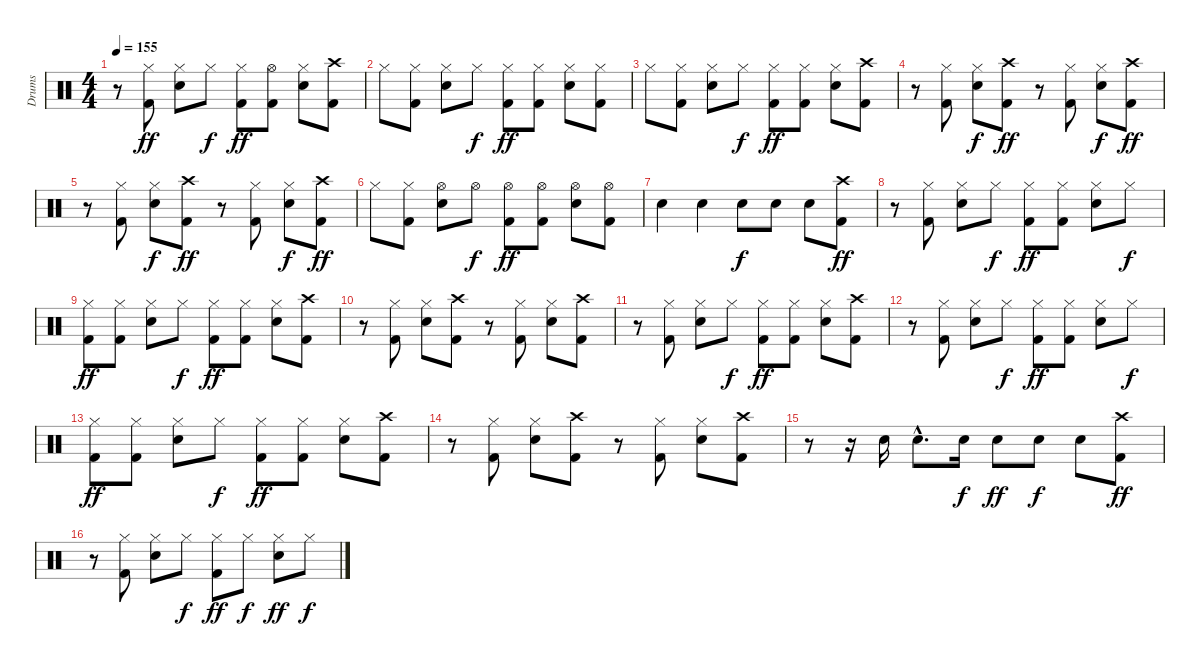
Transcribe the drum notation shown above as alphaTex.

\track ("Drums" "Drums") {instrument percussion}
\staff {score}
\articulation defaults
\ts (4 4)
\tempo 155
\clef neutral
\ks c
r.8{dy ff} ("Hi-Hat (closed)" "Kick (hit) 2").8 ("Hi-Hat (closed)" "Snare (hit) 2").8 "Hi-Hat (closed)".8{dy f} ("Hi-Hat (closed)" "Kick (hit) 2").8{dy ff} ("Hi-Hat (open)" "Kick (hit) 2").8 ("Hi-Hat (closed)" "Snare (hit) 2").8 ("Crash high (hit)" "Kick (hit) 2").8 |
"Hi-Hat (closed)".8 ("Hi-Hat (closed)" "Kick (hit) 2").8 ("Hi-Hat (closed)" "Snare (hit) 2").8 "Hi-Hat (closed)".8{dy f} ("Hi-Hat (closed)" "Kick (hit) 2").8{dy ff} ("Hi-Hat (closed)" "Kick (hit) 2").8 ("Hi-Hat (closed)" "Snare (hit) 2").8 ("Hi-Hat (closed)" "Kick (hit) 2").8 |
"Hi-Hat (closed)".8 ("Hi-Hat (closed)" "Kick (hit) 2").8 ("Hi-Hat (closed)" "Snare (hit) 2").8 "Hi-Hat (closed)".8{dy f} ("Hi-Hat (closed)" "Kick (hit) 2").8{dy ff} ("Hi-Hat (closed)" "Kick (hit) 2").8 ("Hi-Hat (closed)" "Snare (hit) 2").8 ("Crash high (hit)" "Kick (hit) 2").8 |
r.8 ("Hi-Hat (closed)" "Kick (hit) 2").8 ("Hi-Hat (closed)" "Snare (hit) 2").8{dy f} ("Crash high (hit)" "Kick (hit) 2").8{dy ff} r.8 ("Hi-Hat (closed)" "Kick (hit) 2").8 ("Hi-Hat (closed)" "Snare (hit) 2").8{dy f} ("Crash high (hit)" "Kick (hit) 2").8{dy ff} |
r.8 ("Hi-Hat (closed)" "Kick (hit) 2").8 ("Hi-Hat (closed)" "Snare (hit) 2").8{dy f} ("Crash high (hit)" "Kick (hit) 2").8{dy ff} r.8 ("Hi-Hat (closed)" "Kick (hit) 2").8 ("Hi-Hat (closed)" "Snare (hit) 2").8{dy f} ("Crash high (hit)" "Kick (hit) 2").8{dy ff} |
"Hi-Hat (closed)".8 ("Hi-Hat (closed)" "Kick (hit) 2").8 ("Hi-Hat (open)" "Snare (hit) 2").8 "Hi-Hat (open)".8{dy f} ("Hi-Hat (open)" "Kick (hit) 2").8{dy ff} ("Hi-Hat (open)" "Kick (hit) 2").8 ("Hi-Hat (open)" "Snare (hit) 2").8 ("Hi-Hat (open)" "Kick (hit) 2").8 |
"Snare (hit) 2".4 "Snare (hit) 2".4 "Snare (hit) 2".8{dy f} "Snare (hit) 2".8 "Snare (hit) 2".8 ("Crash high (hit)" "Kick (hit) 2").8{dy ff} |
r.8 ("Hi-Hat (closed)" "Kick (hit) 2").8 ("Hi-Hat (closed)" "Snare (hit) 2").8 "Hi-Hat (closed)".8{dy f} ("Hi-Hat (closed)" "Kick (hit) 2").8{dy ff} ("Hi-Hat (closed)" "Kick (hit) 2").8 ("Hi-Hat (closed)" "Snare (hit) 2").8 "Hi-Hat (closed)".8{dy f} |
("Hi-Hat (closed)" "Kick (hit) 2").8{dy ff} ("Hi-Hat (closed)" "Kick (hit) 2").8 ("Hi-Hat (closed)" "Snare (hit) 2").8 "Hi-Hat (closed)".8{dy f} ("Hi-Hat (closed)" "Kick (hit) 2").8{dy ff} ("Hi-Hat (closed)" "Kick (hit) 2").8 ("Hi-Hat (closed)" "Snare (hit) 2").8 ("Crash high (hit)" "Kick (hit) 2").8 |
r.8 ("Hi-Hat (closed)" "Kick (hit) 2").8 ("Hi-Hat (closed)" "Snare (hit) 2").8 ("Crash high (hit)" "Kick (hit) 2").8 r.8 ("Hi-Hat (closed)" "Kick (hit) 2").8 ("Hi-Hat (closed)" "Snare (hit) 2").8 ("Crash high (hit)" "Kick (hit) 2").8 |
r.8 ("Hi-Hat (closed)" "Kick (hit) 2").8 ("Hi-Hat (closed)" "Snare (hit) 2").8 "Hi-Hat (closed)".8{dy f} ("Hi-Hat (closed)" "Kick (hit) 2").8{dy ff} ("Hi-Hat (closed)" "Kick (hit) 2").8 ("Hi-Hat (closed)" "Snare (hit) 2").8 ("Crash high (hit)" "Kick (hit) 2").8 |
r.8 ("Hi-Hat (closed)" "Kick (hit) 2").8 ("Hi-Hat (closed)" "Snare (hit) 2").8 "Hi-Hat (closed)".8{dy f} ("Hi-Hat (closed)" "Kick (hit) 2").8{dy ff} ("Hi-Hat (closed)" "Kick (hit) 2").8 ("Hi-Hat (closed)" "Snare (hit) 2").8 "Hi-Hat (closed)".8{dy f} |
("Hi-Hat (closed)" "Kick (hit) 2").8{dy ff} ("Hi-Hat (closed)" "Kick (hit) 2").8 ("Hi-Hat (closed)" "Snare (hit) 2").8 "Hi-Hat (closed)".8{dy f} ("Hi-Hat (closed)" "Kick (hit) 2").8{dy ff} ("Hi-Hat (closed)" "Kick (hit) 2").8 ("Hi-Hat (closed)" "Snare (hit) 2").8 ("Crash high (hit)" "Kick (hit) 2").8 |
r.8 ("Hi-Hat (closed)" "Kick (hit) 2").8 ("Hi-Hat (closed)" "Snare (hit) 2").8 ("Crash high (hit)" "Kick (hit) 2").8 r.8 ("Hi-Hat (closed)" "Kick (hit) 2").8 ("Hi-Hat (closed)" "Snare (hit) 2").8 ("Crash high (hit)" "Kick (hit) 2").8 |
r.8 r.16 "Snare (hit) 2".16 "Snare (hit) 2"{hac}.8{d} "Snare (hit) 2".16{dy f} "Snare (hit) 2".8{dy ff} "Snare (hit) 2".8{dy f} "Snare (hit) 2".8 ("Crash high (hit)" "Kick (hit) 2").8{dy ff} |
r.8 ("Hi-Hat (closed)" "Kick (hit) 2").8 ("Hi-Hat (closed)" "Snare (hit) 2").8 "Hi-Hat (closed)".8{dy f} ("Hi-Hat (closed)" "Kick (hit) 2").8{dy ff} "Hi-Hat (closed)".8{dy f} ("Hi-Hat (closed)" "Snare (hit) 2").8{dy ff} "Hi-Hat (closed)".8{dy f}
